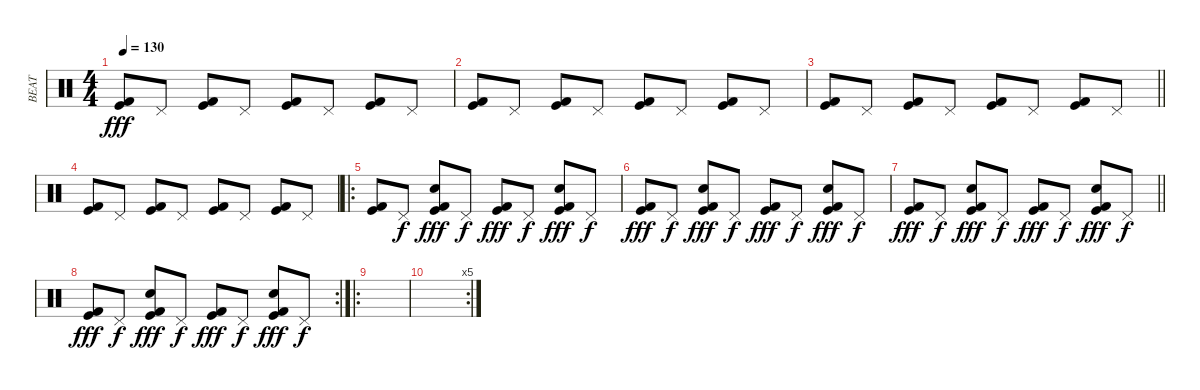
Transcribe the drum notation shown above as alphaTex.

\track ("BEAT" "BEAT") {instrument percussion}
\staff {score}
\articulation defaults
\ts (4 4)
\tempo 130
\clef neutral
\ks c
("Kick (hit) 2" "Kick (hit)").8{dy fff} "Pedal Hi-Hat (hit)".8 ("Kick (hit) 2" "Kick (hit)").8 "Pedal Hi-Hat (hit)".8 ("Kick (hit) 2" "Kick (hit)").8 "Pedal Hi-Hat (hit)".8 ("Kick (hit) 2" "Kick (hit)").8 "Pedal Hi-Hat (hit)".8 |
("Kick (hit) 2" "Kick (hit)").8 "Pedal Hi-Hat (hit)".8 ("Kick (hit) 2" "Kick (hit)").8 "Pedal Hi-Hat (hit)".8 ("Kick (hit) 2" "Kick (hit)").8 "Pedal Hi-Hat (hit)".8 ("Kick (hit) 2" "Kick (hit)").8 "Pedal Hi-Hat (hit)".8 |
\barLineRight lightlight
("Kick (hit) 2" "Kick (hit)").8 "Pedal Hi-Hat (hit)".8 ("Kick (hit) 2" "Kick (hit)").8 "Pedal Hi-Hat (hit)".8 ("Kick (hit) 2" "Kick (hit)").8 "Pedal Hi-Hat (hit)".8 ("Kick (hit) 2" "Kick (hit)").8 "Pedal Hi-Hat (hit)".8 |
("Kick (hit) 2" "Kick (hit)").8 "Pedal Hi-Hat (hit)".8 ("Kick (hit) 2" "Kick (hit)").8 "Pedal Hi-Hat (hit)".8 ("Kick (hit) 2" "Kick (hit)").8 "Pedal Hi-Hat (hit)".8 ("Kick (hit) 2" "Kick (hit)").8 "Pedal Hi-Hat (hit)".8 |
\ro
("Kick (hit) 2" "Kick (hit)").8 "Pedal Hi-Hat (hit)".8{dy f} ("Kick (hit) 2" "Hand Clap (hit)" "Kick (hit)").8{dy fff} "Pedal Hi-Hat (hit)".8{dy f} ("Kick (hit) 2" "Kick (hit)").8{dy fff} "Pedal Hi-Hat (hit)".8{dy f} ("Kick (hit) 2" "Hand Clap (hit)" "Kick (hit)").8{dy fff} "Pedal Hi-Hat (hit)".8{dy f} |
("Kick (hit) 2" "Kick (hit)").8{dy fff} "Pedal Hi-Hat (hit)".8{dy f} ("Kick (hit) 2" "Hand Clap (hit)" "Kick (hit)").8{dy fff} "Pedal Hi-Hat (hit)".8{dy f} ("Kick (hit) 2" "Kick (hit)").8{dy fff} "Pedal Hi-Hat (hit)".8{dy f} ("Kick (hit) 2" "Hand Clap (hit)" "Kick (hit)").8{dy fff} "Pedal Hi-Hat (hit)".8{dy f} |
\barLineRight lightlight
("Kick (hit) 2" "Kick (hit)").8{dy fff} "Pedal Hi-Hat (hit)".8{dy f} ("Kick (hit) 2" "Hand Clap (hit)" "Kick (hit)").8{dy fff} "Pedal Hi-Hat (hit)".8{dy f} ("Kick (hit) 2" "Kick (hit)").8{dy fff} "Pedal Hi-Hat (hit)".8{dy f} ("Kick (hit) 2" "Hand Clap (hit)" "Kick (hit)").8{dy fff} "Pedal Hi-Hat (hit)".8{dy f} |
\rc 2
("Kick (hit) 2" "Kick (hit)").8{dy fff} "Pedal Hi-Hat (hit)".8{dy f} ("Kick (hit) 2" "Hand Clap (hit)" "Kick (hit)").8{dy fff} "Pedal Hi-Hat (hit)".8{dy f} ("Kick (hit) 2" "Kick (hit)").8{dy fff} "Pedal Hi-Hat (hit)".8{dy f} ("Kick (hit) 2" "Hand Clap (hit)" "Kick (hit)").8{dy fff} "Pedal Hi-Hat (hit)".8{dy f} |
\ro
|
\rc 5
